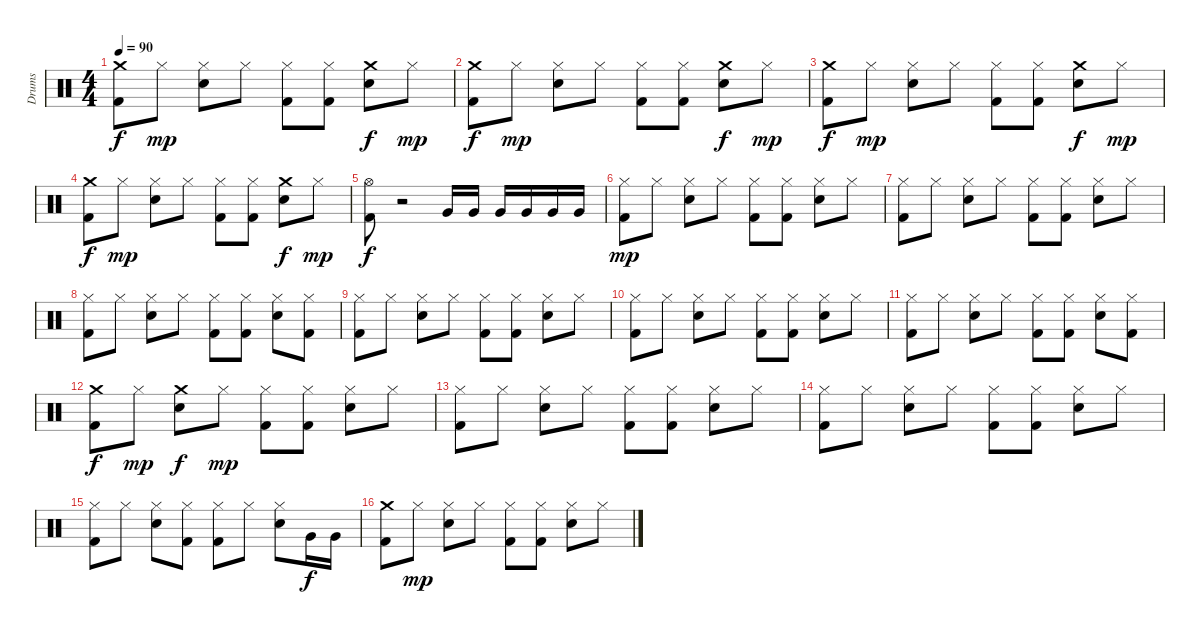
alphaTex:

\track ("Drums" "Drums") {instrument percussion}
\staff {score}
\articulation defaults
\ts (4 4)
\tempo 90
\clef neutral
\ks c
("Kick (hit) 2" "Crash medium (hit)").8{dy f} "Hi-Hat (closed)".8{dy mp} ("Electric Snare (hit)" "Hi-Hat (closed)").8 "Hi-Hat (closed)".8 ("Kick (hit) 2" "Hi-Hat (closed)").8 ("Kick (hit) 2" "Hi-Hat (closed)").8 ("Crash medium (hit)" "Electric Snare (hit)").8{dy f} "Hi-Hat (closed)".8{dy mp} |
("Kick (hit) 2" "Crash medium (hit)").8{dy f} "Hi-Hat (closed)".8{dy mp} ("Electric Snare (hit)" "Hi-Hat (closed)").8 "Hi-Hat (closed)".8 ("Kick (hit) 2" "Hi-Hat (closed)").8 ("Kick (hit) 2" "Hi-Hat (closed)").8 ("Crash medium (hit)" "Electric Snare (hit)").8{dy f} "Hi-Hat (closed)".8{dy mp} |
("Kick (hit) 2" "Crash medium (hit)").8{dy f} "Hi-Hat (closed)".8{dy mp} ("Electric Snare (hit)" "Hi-Hat (closed)").8 "Hi-Hat (closed)".8 ("Kick (hit) 2" "Hi-Hat (closed)").8 ("Kick (hit) 2" "Hi-Hat (closed)").8 ("Crash medium (hit)" "Electric Snare (hit)").8{dy f} "Hi-Hat (closed)".8{dy mp} |
("Kick (hit) 2" "Crash medium (hit)").8{dy f} "Hi-Hat (closed)".8{dy mp} ("Electric Snare (hit)" "Hi-Hat (closed)").8 "Hi-Hat (closed)".8 ("Kick (hit) 2" "Hi-Hat (closed)").8 ("Kick (hit) 2" "Hi-Hat (closed)").8 ("Crash medium (hit)" "Electric Snare (hit)").8{dy f} "Hi-Hat (closed)".8{dy mp} |
("Kick (hit) 2" "Hi-Hat (open)").8{dy f} r.2 "Very Low Tom (hit)".16 "Very Low Tom (hit)".16 "Very Low Tom (hit)".16 "Very Low Tom (hit)".16 "Very Low Tom (hit)".16 "Very Low Tom (hit)".16 |
("Kick (hit) 2" "Hi-Hat (closed)").8{dy mp} "Hi-Hat (closed)".8 ("Electric Snare (hit)" "Hi-Hat (closed)").8 "Hi-Hat (closed)".8 ("Kick (hit) 2" "Hi-Hat (closed)").8 ("Kick (hit) 2" "Hi-Hat (closed)").8 ("Electric Snare (hit)" "Hi-Hat (closed)").8 "Hi-Hat (closed)".8 |
("Kick (hit) 2" "Hi-Hat (closed)").8 "Hi-Hat (closed)".8 ("Electric Snare (hit)" "Hi-Hat (closed)").8 "Hi-Hat (closed)".8 ("Kick (hit) 2" "Hi-Hat (closed)").8 ("Kick (hit) 2" "Hi-Hat (closed)").8 ("Electric Snare (hit)" "Hi-Hat (closed)").8 "Hi-Hat (closed)".8 |
("Kick (hit) 2" "Hi-Hat (closed)").8 "Hi-Hat (closed)".8 ("Electric Snare (hit)" "Hi-Hat (closed)").8 "Hi-Hat (closed)".8 ("Kick (hit) 2" "Hi-Hat (closed)").8 ("Kick (hit) 2" "Hi-Hat (closed)").8 ("Electric Snare (hit)" "Hi-Hat (closed)").8 ("Kick (hit) 2" "Hi-Hat (closed)").8 |
("Kick (hit) 2" "Hi-Hat (closed)").8 "Hi-Hat (closed)".8 ("Electric Snare (hit)" "Hi-Hat (closed)").8 "Hi-Hat (closed)".8 ("Kick (hit) 2" "Hi-Hat (closed)").8 ("Kick (hit) 2" "Hi-Hat (closed)").8 ("Electric Snare (hit)" "Hi-Hat (closed)").8 "Hi-Hat (closed)".8 |
("Kick (hit) 2" "Hi-Hat (closed)").8 "Hi-Hat (closed)".8 ("Electric Snare (hit)" "Hi-Hat (closed)").8 "Hi-Hat (closed)".8 ("Kick (hit) 2" "Hi-Hat (closed)").8 ("Kick (hit) 2" "Hi-Hat (closed)").8 ("Electric Snare (hit)" "Hi-Hat (closed)").8 "Hi-Hat (closed)".8 |
("Kick (hit) 2" "Hi-Hat (closed)").8 "Hi-Hat (closed)".8 ("Electric Snare (hit)" "Hi-Hat (closed)").8 "Hi-Hat (closed)".8 ("Kick (hit) 2" "Hi-Hat (closed)").8 ("Kick (hit) 2" "Hi-Hat (closed)").8 ("Electric Snare (hit)" "Hi-Hat (closed)").8 ("Kick (hit) 2" "Hi-Hat (closed)").8 |
("Crash medium (hit)" "Kick (hit) 2").8{dy f} "Hi-Hat (closed)".8{dy mp} ("Crash medium (hit)" "Electric Snare (hit)").8{dy f} "Hi-Hat (closed)".8{dy mp} ("Kick (hit) 2" "Hi-Hat (closed)").8 ("Kick (hit) 2" "Hi-Hat (closed)").8 ("Electric Snare (hit)" "Hi-Hat (closed)").8 "Hi-Hat (closed)".8 |
("Kick (hit) 2" "Hi-Hat (closed)").8 "Hi-Hat (closed)".8 ("Electric Snare (hit)" "Hi-Hat (closed)").8 "Hi-Hat (closed)".8 ("Kick (hit) 2" "Hi-Hat (closed)").8 ("Kick (hit) 2" "Hi-Hat (closed)").8 ("Electric Snare (hit)" "Hi-Hat (closed)").8 "Hi-Hat (closed)".8 |
("Kick (hit) 2" "Hi-Hat (closed)").8 "Hi-Hat (closed)".8 ("Electric Snare (hit)" "Hi-Hat (closed)").8 "Hi-Hat (closed)".8 ("Kick (hit) 2" "Hi-Hat (closed)").8 ("Kick (hit) 2" "Hi-Hat (closed)").8 ("Electric Snare (hit)" "Hi-Hat (closed)").8 "Hi-Hat (closed)".8 |
("Kick (hit) 2" "Hi-Hat (closed)").8 "Hi-Hat (closed)".8 ("Electric Snare (hit)" "Hi-Hat (closed)").8 ("Kick (hit) 2" "Hi-Hat (closed)").8 ("Kick (hit) 2" "Hi-Hat (closed)").8 "Hi-Hat (closed)".8 ("Electric Snare (hit)" "Hi-Hat (closed)").8 "Very Low Tom (hit)".16{dy f} "Very Low Tom (hit)".16 |
("Crash medium (hit)" "Kick (hit) 2").8 "Hi-Hat (closed)".8{dy mp} ("Electric Snare (hit)" "Hi-Hat (closed)").8 "Hi-Hat (closed)".8 ("Kick (hit) 2" "Hi-Hat (closed)").8 ("Kick (hit) 2" "Hi-Hat (closed)").8 ("Electric Snare (hit)" "Hi-Hat (closed)").8 "Hi-Hat (closed)".8
